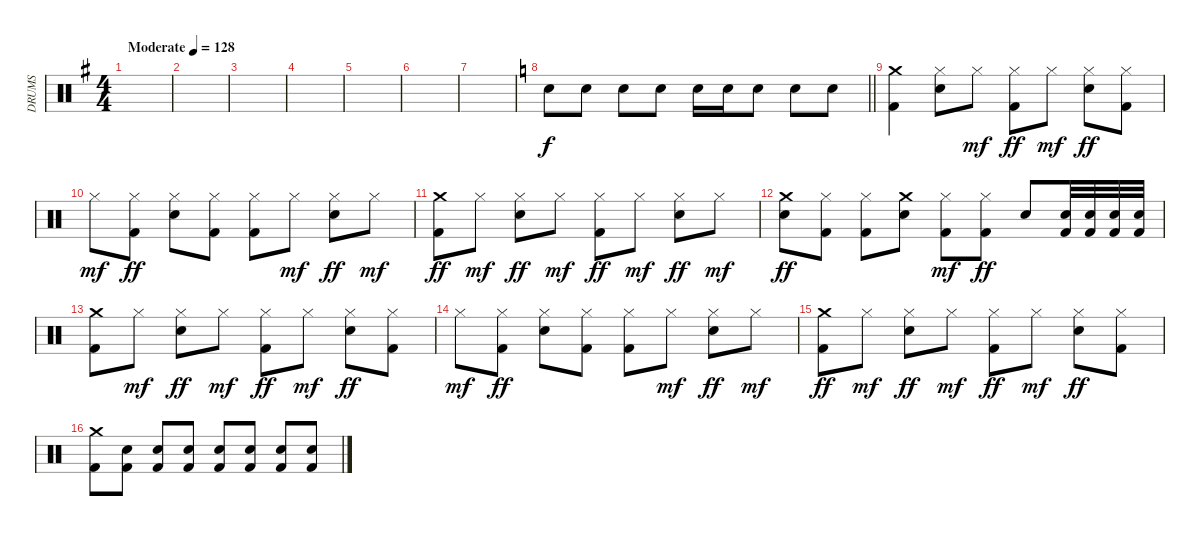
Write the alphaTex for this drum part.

\track ("DRUMS" "DRUMS") {instrument percussion}
\staff {score}
\articulation defaults
\ts (4 4)
\tempo (128 "Moderate")
\clef neutral
\ks eminor
|
|
|
|
|
|
|
\barLineRight lightlight
\ks c "Electric Snare (hit)".8 "Snare (hit) 2".8 "Electric Snare (hit)".8 "Snare (hit) 2".8 "Electric Snare (hit)".16 "Snare (hit) 2".16 "Electric Snare (hit)".8 "Snare (hit) 2".8 "Electric Snare (hit)".8
|
("Crash medium (hit)" "Kick (hit) 2").4 ("Hi-Hat (closed)" "Snare (hit) 2").8 "Hi-Hat (closed)".8{dy mf} ("Hi-Hat (closed)" "Kick (hit) 2").8{dy ff} "Hi-Hat (closed)".8{dy mf} ("Hi-Hat (closed)" "Snare (hit) 2").8{dy ff} ("Hi-Hat (closed)" "Kick (hit) 2").8 |
"Hi-Hat (closed)".8{dy mf} ("Hi-Hat (closed)" "Kick (hit) 2").8{dy ff} ("Hi-Hat (closed)" "Snare (hit) 2").8 ("Hi-Hat (closed)" "Kick (hit) 2").8 ("Hi-Hat (closed)" "Kick (hit) 2").8 "Hi-Hat (closed)".8{dy mf} ("Hi-Hat (closed)" "Snare (hit) 2").8{dy ff} "Hi-Hat (closed)".8{dy mf} |
("Crash medium (hit)" "Kick (hit) 2").8{dy ff} "Hi-Hat (closed)".8{dy mf} ("Hi-Hat (closed)" "Snare (hit) 2").8{dy ff} "Hi-Hat (closed)".8{dy mf} ("Hi-Hat (closed)" "Kick (hit) 2").8{dy ff} "Hi-Hat (closed)".8{dy mf} ("Hi-Hat (closed)" "Snare (hit) 2").8{dy ff} "Hi-Hat (closed)".8{dy mf} |
("Crash medium (hit)" "Snare (hit) 2").8{dy ff} ("Hi-Hat (closed)" "Kick (hit) 2").8 ("Hi-Hat (closed)" "Kick (hit) 2").8 ("Crash medium (hit)" "Snare (hit) 2").8 ("Hi-Hat (closed)" "Kick (hit) 2").8{dy mf} ("Hi-Hat (closed)" "Kick (hit) 2").8{dy ff} "Snare (hit) 2".8 ("Snare (hit) 2" "Kick (hit) 2").32 ("Snare (hit) 2" "Kick (hit) 2").32 ("Snare (hit) 2" "Kick (hit) 2").32 ("Snare (hit) 2" "Kick (hit) 2").32 |
("Crash medium (hit)" "Kick (hit) 2").8 "Hi-Hat (closed)".8{dy mf} ("Hi-Hat (closed)" "Snare (hit) 2").8{dy ff} "Hi-Hat (closed)".8{dy mf} ("Hi-Hat (closed)" "Kick (hit) 2").8{dy ff} "Hi-Hat (closed)".8{dy mf} ("Hi-Hat (closed)" "Snare (hit) 2").8{dy ff} ("Hi-Hat (closed)" "Kick (hit) 2").8 |
"Hi-Hat (closed)".8{dy mf} ("Hi-Hat (closed)" "Kick (hit) 2").8{dy ff} ("Hi-Hat (closed)" "Snare (hit) 2").8 ("Hi-Hat (closed)" "Kick (hit) 2").8 ("Hi-Hat (closed)" "Kick (hit) 2").8 "Hi-Hat (closed)".8{dy mf} ("Hi-Hat (closed)" "Snare (hit) 2").8{dy ff} "Hi-Hat (closed)".8{dy mf} |
("Crash medium (hit)" "Kick (hit) 2").8{dy ff} "Hi-Hat (closed)".8{dy mf} ("Hi-Hat (closed)" "Snare (hit) 2").8{dy ff} "Hi-Hat (closed)".8{dy mf} ("Hi-Hat (closed)" "Kick (hit) 2").8{dy ff} "Hi-Hat (closed)".8{dy mf} ("Hi-Hat (closed)" "Snare (hit) 2").8{dy ff} ("Hi-Hat (closed)" "Kick (hit) 2").8 |
("Crash medium (hit)" "Kick (hit) 2").8 ("Snare (hit) 2" "Kick (hit) 2").8 ("Snare (hit) 2" "Kick (hit) 2").8 ("Snare (hit) 2" "Kick (hit) 2").8 ("Electric Snare (hit)" "Kick (hit) 2").8 ("Snare (hit) 2" "Kick (hit) 2").8 ("Snare (hit) 2" "Kick (hit) 2").8 ("Snare (hit) 2" "Kick (hit) 2").8
